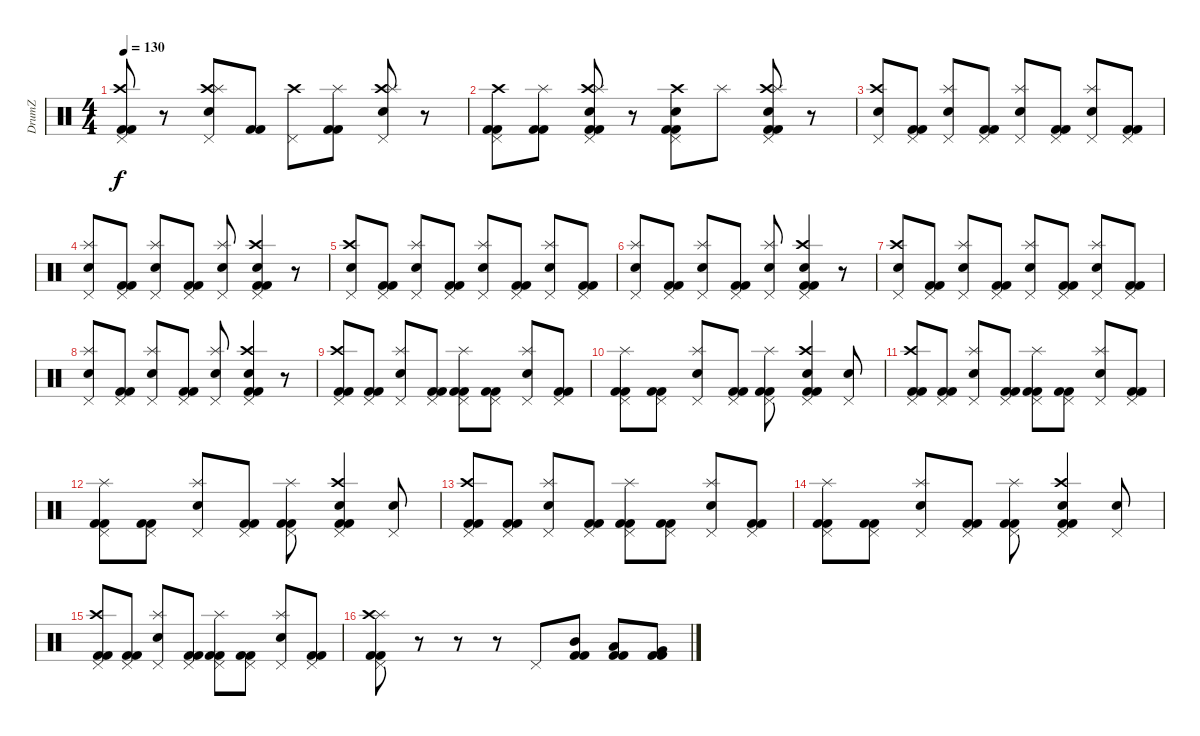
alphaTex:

\track ("DrumZ" "DrumZ") {instrument percussion}
\staff {score}
\articulation defaults
\ts (4 4)
\tempo 130
\clef neutral
\ks c
("Pedal Hi-Hat (hit)" "Crash high (hit)" "Kick (hit) 2" "Kick (hit) 2").8{dy f} r.8 ("Pedal Hi-Hat (hit)" "Crash high (hit)" "Splash (hit)" "Snare (hit) 2").8 ("Kick (hit) 2" "Kick (hit) 2").8 ("Pedal Hi-Hat (hit)" "Crash high (hit)").8 ("Splash (hit)" "Kick (hit) 2" "Kick (hit) 2").8 ("Pedal Hi-Hat (hit)" "Crash high (hit)" "Splash (hit)" "Snare (hit) 2").8 r.8 |
("Pedal Hi-Hat (hit)" "Crash high (hit)" "Kick (hit) 2" "Kick (hit) 2").8 ("Splash (hit)" "Kick (hit) 2" "Kick (hit) 2").8 ("Pedal Hi-Hat (hit)" "Crash high (hit)" "Splash (hit)" "Snare (hit) 2" "Kick (hit) 2" "Kick (hit) 2").8 r.8 ("Pedal Hi-Hat (hit)" "Crash high (hit)" "Snare (hit) 2" "Kick (hit) 2" "Kick (hit) 2").8 "Splash (hit)".8 ("Pedal Hi-Hat (hit)" "Crash high (hit)" "Splash (hit)" "Snare (hit) 2" "Kick (hit) 2" "Kick (hit) 2").8 r.8 |
("Pedal Hi-Hat (hit)" "Crash high (hit)" "Snare (hit) 2").8 ("Pedal Hi-Hat (hit)" "Kick (hit) 2" "Kick (hit) 2").8 ("Pedal Hi-Hat (hit)" "Splash (hit)" "Snare (hit) 2").8 ("Pedal Hi-Hat (hit)" "Kick (hit) 2" "Kick (hit) 2").8 ("Pedal Hi-Hat (hit)" "Splash (hit)" "Snare (hit) 2").8 ("Pedal Hi-Hat (hit)" "Kick (hit) 2" "Kick (hit) 2").8 ("Pedal Hi-Hat (hit)" "Splash (hit)" "Snare (hit) 2").8 ("Pedal Hi-Hat (hit)" "Kick (hit) 2" "Kick (hit) 2").8 |
("Pedal Hi-Hat (hit)" "Splash (hit)" "Snare (hit) 2").8 ("Pedal Hi-Hat (hit)" "Kick (hit) 2" "Kick (hit) 2").8 ("Pedal Hi-Hat (hit)" "Splash (hit)" "Snare (hit) 2").8 ("Pedal Hi-Hat (hit)" "Kick (hit) 2" "Kick (hit) 2").8 ("Pedal Hi-Hat (hit)" "Splash (hit)" "Snare (hit) 2").8 ("Pedal Hi-Hat (hit)" "Crash high (hit)" "Snare (hit) 2" "Kick (hit) 2" "Kick (hit) 2").4 r.8 |
("Pedal Hi-Hat (hit)" "Crash high (hit)" "Snare (hit) 2").8 ("Pedal Hi-Hat (hit)" "Kick (hit) 2" "Kick (hit) 2").8 ("Pedal Hi-Hat (hit)" "Splash (hit)" "Snare (hit) 2").8 ("Pedal Hi-Hat (hit)" "Kick (hit) 2" "Kick (hit) 2").8 ("Pedal Hi-Hat (hit)" "Splash (hit)" "Snare (hit) 2").8 ("Pedal Hi-Hat (hit)" "Kick (hit) 2" "Kick (hit) 2").8 ("Pedal Hi-Hat (hit)" "Splash (hit)" "Snare (hit) 2").8 ("Pedal Hi-Hat (hit)" "Kick (hit) 2" "Kick (hit) 2").8 |
("Pedal Hi-Hat (hit)" "Splash (hit)" "Snare (hit) 2").8 ("Pedal Hi-Hat (hit)" "Kick (hit) 2" "Kick (hit) 2").8 ("Pedal Hi-Hat (hit)" "Splash (hit)" "Snare (hit) 2").8 ("Pedal Hi-Hat (hit)" "Kick (hit) 2" "Kick (hit) 2").8 ("Pedal Hi-Hat (hit)" "Splash (hit)" "Snare (hit) 2").8 ("Pedal Hi-Hat (hit)" "Crash high (hit)" "Snare (hit) 2" "Kick (hit) 2" "Kick (hit) 2").4 r.8 |
("Pedal Hi-Hat (hit)" "Crash high (hit)" "Snare (hit) 2").8 ("Pedal Hi-Hat (hit)" "Kick (hit) 2" "Kick (hit) 2").8 ("Pedal Hi-Hat (hit)" "Splash (hit)" "Snare (hit) 2").8 ("Pedal Hi-Hat (hit)" "Kick (hit) 2" "Kick (hit) 2").8 ("Pedal Hi-Hat (hit)" "Splash (hit)" "Snare (hit) 2").8 ("Pedal Hi-Hat (hit)" "Kick (hit) 2" "Kick (hit) 2").8 ("Pedal Hi-Hat (hit)" "Splash (hit)" "Snare (hit) 2").8 ("Pedal Hi-Hat (hit)" "Kick (hit) 2" "Kick (hit) 2").8 |
("Pedal Hi-Hat (hit)" "Splash (hit)" "Snare (hit) 2").8 ("Pedal Hi-Hat (hit)" "Kick (hit) 2" "Kick (hit) 2").8 ("Pedal Hi-Hat (hit)" "Splash (hit)" "Snare (hit) 2").8 ("Pedal Hi-Hat (hit)" "Kick (hit) 2" "Kick (hit) 2").8 ("Pedal Hi-Hat (hit)" "Splash (hit)" "Snare (hit) 2").8 ("Pedal Hi-Hat (hit)" "Crash high (hit)" "Snare (hit) 2" "Kick (hit) 2" "Kick (hit) 2").4 r.8 |
("Pedal Hi-Hat (hit)" "Crash high (hit)" "Kick (hit) 2" "Kick (hit) 2").8 ("Pedal Hi-Hat (hit)" "Kick (hit) 2" "Kick (hit) 2").8 ("Pedal Hi-Hat (hit)" "Splash (hit)" "Snare (hit) 2").8 ("Pedal Hi-Hat (hit)" "Kick (hit) 2" "Kick (hit) 2").8 ("Pedal Hi-Hat (hit)" "Splash (hit)" "Kick (hit) 2" "Kick (hit) 2").8 ("Pedal Hi-Hat (hit)" "Kick (hit) 2" "Kick (hit) 2").8 ("Pedal Hi-Hat (hit)" "Splash (hit)" "Snare (hit) 2").8 ("Pedal Hi-Hat (hit)" "Kick (hit) 2" "Kick (hit) 2").8 |
("Pedal Hi-Hat (hit)" "Splash (hit)" "Kick (hit) 2" "Kick (hit) 2").8 ("Pedal Hi-Hat (hit)" "Kick (hit) 2" "Kick (hit) 2").8 ("Pedal Hi-Hat (hit)" "Splash (hit)" "Snare (hit) 2").8 ("Pedal Hi-Hat (hit)" "Kick (hit) 2" "Kick (hit) 2").8 ("Pedal Hi-Hat (hit)" "Splash (hit)" "Kick (hit) 2" "Kick (hit) 2").8 ("Pedal Hi-Hat (hit)" "Crash high (hit)" "Snare (hit) 2" "Kick (hit) 2" "Kick (hit) 2").4 ("Pedal Hi-Hat (hit)" "Snare (hit) 2").8 |
("Pedal Hi-Hat (hit)" "Crash high (hit)" "Kick (hit) 2" "Kick (hit) 2").8 ("Pedal Hi-Hat (hit)" "Kick (hit) 2" "Kick (hit) 2").8 ("Pedal Hi-Hat (hit)" "Splash (hit)" "Snare (hit) 2").8 ("Pedal Hi-Hat (hit)" "Kick (hit) 2" "Kick (hit) 2").8 ("Pedal Hi-Hat (hit)" "Splash (hit)" "Kick (hit) 2" "Kick (hit) 2").8 ("Pedal Hi-Hat (hit)" "Kick (hit) 2" "Kick (hit) 2").8 ("Pedal Hi-Hat (hit)" "Splash (hit)" "Snare (hit) 2").8 ("Pedal Hi-Hat (hit)" "Kick (hit) 2" "Kick (hit) 2").8 |
("Pedal Hi-Hat (hit)" "Splash (hit)" "Kick (hit) 2" "Kick (hit) 2").8 ("Pedal Hi-Hat (hit)" "Kick (hit) 2" "Kick (hit) 2").8 ("Pedal Hi-Hat (hit)" "Splash (hit)" "Snare (hit) 2").8 ("Pedal Hi-Hat (hit)" "Kick (hit) 2" "Kick (hit) 2").8 ("Pedal Hi-Hat (hit)" "Splash (hit)" "Kick (hit) 2" "Kick (hit) 2").8 ("Pedal Hi-Hat (hit)" "Crash high (hit)" "Snare (hit) 2" "Kick (hit) 2" "Kick (hit) 2").4 ("Pedal Hi-Hat (hit)" "Snare (hit) 2").8 |
("Pedal Hi-Hat (hit)" "Crash high (hit)" "Kick (hit) 2" "Kick (hit) 2").8 ("Pedal Hi-Hat (hit)" "Kick (hit) 2" "Kick (hit) 2").8 ("Pedal Hi-Hat (hit)" "Splash (hit)" "Snare (hit) 2").8 ("Pedal Hi-Hat (hit)" "Kick (hit) 2" "Kick (hit) 2").8 ("Pedal Hi-Hat (hit)" "Splash (hit)" "Kick (hit) 2" "Kick (hit) 2").8 ("Pedal Hi-Hat (hit)" "Kick (hit) 2" "Kick (hit) 2").8 ("Pedal Hi-Hat (hit)" "Splash (hit)" "Snare (hit) 2").8 ("Pedal Hi-Hat (hit)" "Kick (hit) 2" "Kick (hit) 2").8 |
("Pedal Hi-Hat (hit)" "Splash (hit)" "Kick (hit) 2" "Kick (hit) 2").8 ("Pedal Hi-Hat (hit)" "Kick (hit) 2" "Kick (hit) 2").8 ("Pedal Hi-Hat (hit)" "Splash (hit)" "Snare (hit) 2").8 ("Pedal Hi-Hat (hit)" "Kick (hit) 2" "Kick (hit) 2").8 ("Pedal Hi-Hat (hit)" "Splash (hit)" "Kick (hit) 2" "Kick (hit) 2").8 ("Pedal Hi-Hat (hit)" "Crash high (hit)" "Snare (hit) 2" "Kick (hit) 2" "Kick (hit) 2").4 ("Pedal Hi-Hat (hit)" "Snare (hit) 2").8 |
("Pedal Hi-Hat (hit)" "Crash high (hit)" "Kick (hit) 2" "Kick (hit) 2").8 ("Pedal Hi-Hat (hit)" "Kick (hit) 2" "Kick (hit) 2").8 ("Pedal Hi-Hat (hit)" "Splash (hit)" "Snare (hit) 2").8 ("Pedal Hi-Hat (hit)" "Kick (hit) 2" "Kick (hit) 2").8 ("Pedal Hi-Hat (hit)" "Splash (hit)" "Kick (hit) 2" "Kick (hit) 2").8 ("Pedal Hi-Hat (hit)" "Kick (hit) 2" "Kick (hit) 2").8 ("Pedal Hi-Hat (hit)" "Splash (hit)" "Snare (hit) 2").8 ("Pedal Hi-Hat (hit)" "Kick (hit) 2" "Kick (hit) 2").8 |
("Pedal Hi-Hat (hit)" "Splash (hit)" "Crash high (hit)" "Kick (hit) 2" "Kick (hit) 2").8 r.8 r.8 r.8 "Pedal Hi-Hat (hit)".8 ("Mid Tom (hit)" "Kick (hit) 2" "Kick (hit) 2").8 ("Low Tom (hit)" "Kick (hit) 2" "Kick (hit) 2").8 ("Very Low Tom (hit)" "Kick (hit) 2" "Kick (hit) 2").8
